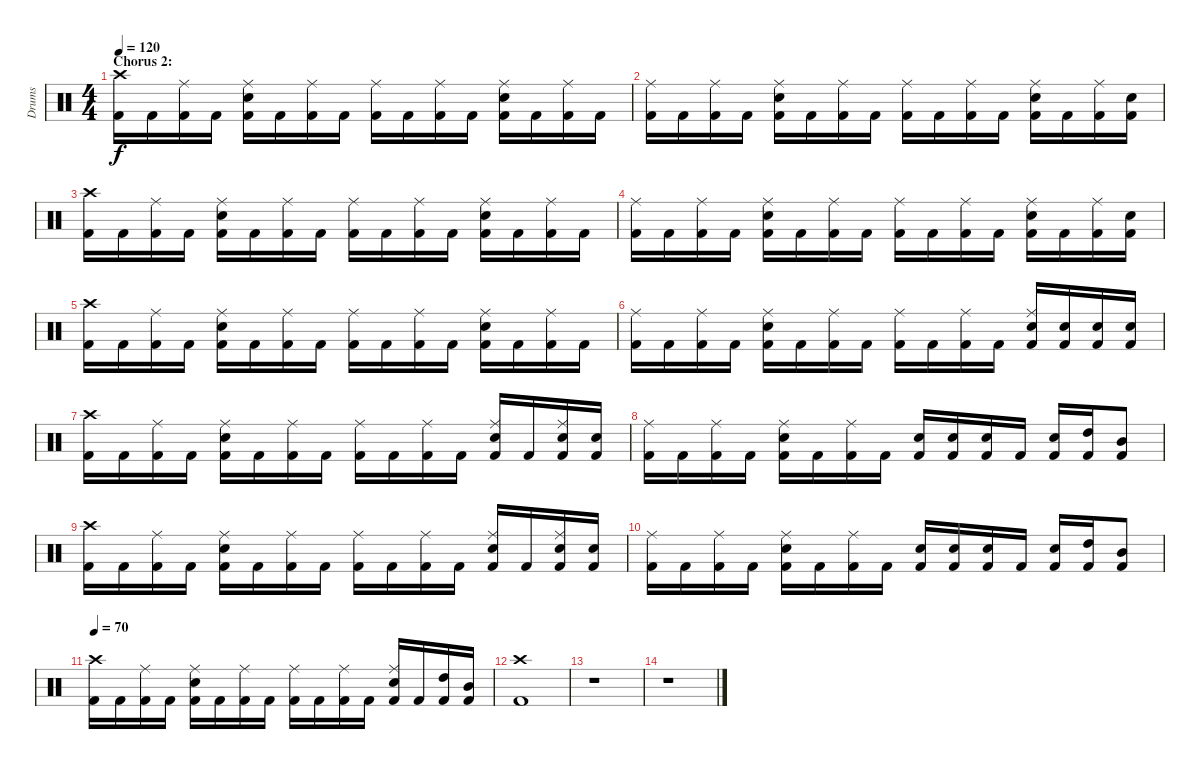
\track ("Drums" "Drums") {instrument percussion}
\staff {score}
\articulation defaults
\ts (4 4)
\section ("" "Chorus 2:")
\tempo 120
\clef neutral
\ks c
("Crash high (hit)" "Kick (hit) 2").16{dy f} "Kick (hit) 2".16 ("Ride (middle)" "Kick (hit) 2").16 "Kick (hit) 2".16 ("Ride (middle)" "Electric Snare (hit)" "Kick (hit) 2").16 "Kick (hit) 2".16 ("Ride (middle)" "Kick (hit) 2").16 "Kick (hit) 2".16 ("Ride (middle)" "Kick (hit) 2").16 "Kick (hit) 2".16 ("Ride (middle)" "Kick (hit) 2").16 "Kick (hit) 2".16 ("Ride (middle)" "Electric Snare (hit)" "Kick (hit) 2").16 "Kick (hit) 2".16 ("Ride (middle)" "Kick (hit) 2").16 "Kick (hit) 2".16 |
("Ride (middle)" "Kick (hit) 2").16 "Kick (hit) 2".16 ("Ride (middle)" "Kick (hit) 2").16 "Kick (hit) 2".16 ("Ride (middle)" "Electric Snare (hit)" "Kick (hit) 2").16 "Kick (hit) 2".16 ("Ride (middle)" "Kick (hit) 2").16 "Kick (hit) 2".16 ("Ride (middle)" "Kick (hit) 2").16 "Kick (hit) 2".16 ("Ride (middle)" "Kick (hit) 2").16 "Kick (hit) 2".16 ("Ride (middle)" "Electric Snare (hit)" "Kick (hit) 2").16 "Kick (hit) 2".16 ("Ride (middle)" "Kick (hit) 2").16 ("Electric Snare (hit)" "Kick (hit) 2").16 |
("Crash high (hit)" "Kick (hit) 2").16 "Kick (hit) 2".16 ("Ride (middle)" "Kick (hit) 2").16 "Kick (hit) 2".16 ("Ride (middle)" "Electric Snare (hit)" "Kick (hit) 2").16 "Kick (hit) 2".16 ("Ride (middle)" "Kick (hit) 2").16 "Kick (hit) 2".16 ("Ride (middle)" "Kick (hit) 2").16 "Kick (hit) 2".16 ("Ride (middle)" "Kick (hit) 2").16 "Kick (hit) 2".16 ("Ride (middle)" "Electric Snare (hit)" "Kick (hit) 2").16 "Kick (hit) 2".16 ("Ride (middle)" "Kick (hit) 2").16 "Kick (hit) 2".16 |
("Ride (middle)" "Kick (hit) 2").16 "Kick (hit) 2".16 ("Ride (middle)" "Kick (hit) 2").16 "Kick (hit) 2".16 ("Ride (middle)" "Electric Snare (hit)" "Kick (hit) 2").16 "Kick (hit) 2".16 ("Ride (middle)" "Kick (hit) 2").16 "Kick (hit) 2".16 ("Ride (middle)" "Kick (hit) 2").16 "Kick (hit) 2".16 ("Ride (middle)" "Kick (hit) 2").16 "Kick (hit) 2".16 ("Ride (middle)" "Electric Snare (hit)" "Kick (hit) 2").16 "Kick (hit) 2".16 ("Ride (middle)" "Kick (hit) 2").16 ("Electric Snare (hit)" "Kick (hit) 2").16 |
("Crash high (hit)" "Kick (hit) 2").16 "Kick (hit) 2".16 ("Ride (middle)" "Kick (hit) 2").16 "Kick (hit) 2".16 ("Ride (middle)" "Electric Snare (hit)" "Kick (hit) 2").16 "Kick (hit) 2".16 ("Ride (middle)" "Kick (hit) 2").16 "Kick (hit) 2".16 ("Ride (middle)" "Kick (hit) 2").16 "Kick (hit) 2".16 ("Ride (middle)" "Kick (hit) 2").16 "Kick (hit) 2".16 ("Ride (middle)" "Electric Snare (hit)" "Kick (hit) 2").16 "Kick (hit) 2".16 ("Ride (middle)" "Kick (hit) 2").16 "Kick (hit) 2".16 |
("Ride (middle)" "Kick (hit) 2").16 "Kick (hit) 2".16 ("Ride (middle)" "Kick (hit) 2").16 "Kick (hit) 2".16 ("Ride (middle)" "Electric Snare (hit)" "Kick (hit) 2").16 "Kick (hit) 2".16 ("Ride (middle)" "Kick (hit) 2").16 "Kick (hit) 2".16 ("Ride (middle)" "Kick (hit) 2").16 "Kick (hit) 2".16 ("Ride (middle)" "Kick (hit) 2").16 "Kick (hit) 2".16 ("Ride (middle)" "Electric Snare (hit)" "Kick (hit) 2").16 ("Electric Snare (hit)" "Kick (hit) 2").16 ("Electric Snare (hit)" "Kick (hit) 2").16 ("Electric Snare (hit)" "Kick (hit) 2").16 |
("Crash high (hit)" "Kick (hit) 2").16 "Kick (hit) 2".16 ("Ride (middle)" "Kick (hit) 2").16 "Kick (hit) 2".16 ("Ride (middle)" "Electric Snare (hit)" "Kick (hit) 2").16 "Kick (hit) 2".16 ("Ride (middle)" "Kick (hit) 2").16 "Kick (hit) 2".16 ("Ride (middle)" "Kick (hit) 2").16 "Kick (hit) 2".16 ("Ride (middle)" "Kick (hit) 2").16 "Kick (hit) 2".16 ("Ride (middle)" "Electric Snare (hit)" "Kick (hit) 2").16 "Kick (hit) 2".16 ("Ride (middle)" "Electric Snare (hit)" "Kick (hit) 2").16 ("Electric Snare (hit)" "Kick (hit) 2").16 |
("Ride (middle)" "Kick (hit) 2").16 "Kick (hit) 2".16 ("Ride (middle)" "Kick (hit) 2").16 "Kick (hit) 2".16 ("Ride (middle)" "Electric Snare (hit)" "Kick (hit) 2").16 "Kick (hit) 2".16 ("Ride (middle)" "Kick (hit) 2").16 "Kick (hit) 2".16 ("Electric Snare (hit)" "Kick (hit) 2").16 ("Electric Snare (hit)" "Kick (hit) 2").16 ("Electric Snare (hit)" "Kick (hit) 2").16 "Kick (hit) 2".16 ("Electric Snare (hit)" "Kick (hit) 2").16 ("High Tom (hit)" "Kick (hit) 2").16 ("Mid Tom (hit)" "Kick (hit) 2").8 |
("Crash high (hit)" "Kick (hit) 2").16 "Kick (hit) 2".16 ("Ride (middle)" "Kick (hit) 2").16 "Kick (hit) 2".16 ("Ride (middle)" "Electric Snare (hit)" "Kick (hit) 2").16 "Kick (hit) 2".16 ("Ride (middle)" "Kick (hit) 2").16 "Kick (hit) 2".16 ("Ride (middle)" "Kick (hit) 2").16 "Kick (hit) 2".16 ("Ride (middle)" "Kick (hit) 2").16 "Kick (hit) 2".16 ("Ride (middle)" "Electric Snare (hit)" "Kick (hit) 2").16 "Kick (hit) 2".16 ("Ride (middle)" "Electric Snare (hit)" "Kick (hit) 2").16 ("Electric Snare (hit)" "Kick (hit) 2").16 |
("Ride (middle)" "Kick (hit) 2").16 "Kick (hit) 2".16 ("Ride (middle)" "Kick (hit) 2").16 "Kick (hit) 2".16 ("Ride (middle)" "Electric Snare (hit)" "Kick (hit) 2").16 "Kick (hit) 2".16 ("Ride (middle)" "Kick (hit) 2").16 "Kick (hit) 2".16 ("Electric Snare (hit)" "Kick (hit) 2").16 ("Electric Snare (hit)" "Kick (hit) 2").16 ("Electric Snare (hit)" "Kick (hit) 2").16 "Kick (hit) 2".16 ("Electric Snare (hit)" "Kick (hit) 2").16 ("High Tom (hit)" "Kick (hit) 2").16 ("Mid Tom (hit)" "Kick (hit) 2").8 |
\tempo 70
("Crash high (hit)" "Kick (hit) 2").16 "Kick (hit) 2".16 ("Ride (middle)" "Kick (hit) 2").16 "Kick (hit) 2".16 ("Ride (middle)" "Electric Snare (hit)" "Kick (hit) 2").16 "Kick (hit) 2".16 ("Ride (middle)" "Kick (hit) 2").16 "Kick (hit) 2".16 ("Ride (middle)" "Kick (hit) 2").16 "Kick (hit) 2".16 ("Ride (middle)" "Kick (hit) 2").16 "Kick (hit) 2".16 ("Ride (middle)" "Electric Snare (hit)" "Kick (hit) 2").16 "Kick (hit) 2".16 ("High Tom (hit)" "Kick (hit) 2").16 ("Mid Tom (hit)" "Kick (hit) 2").16 |
("Crash high (hit)" "Kick (hit) 2").1 |
r.1 |
r.1
